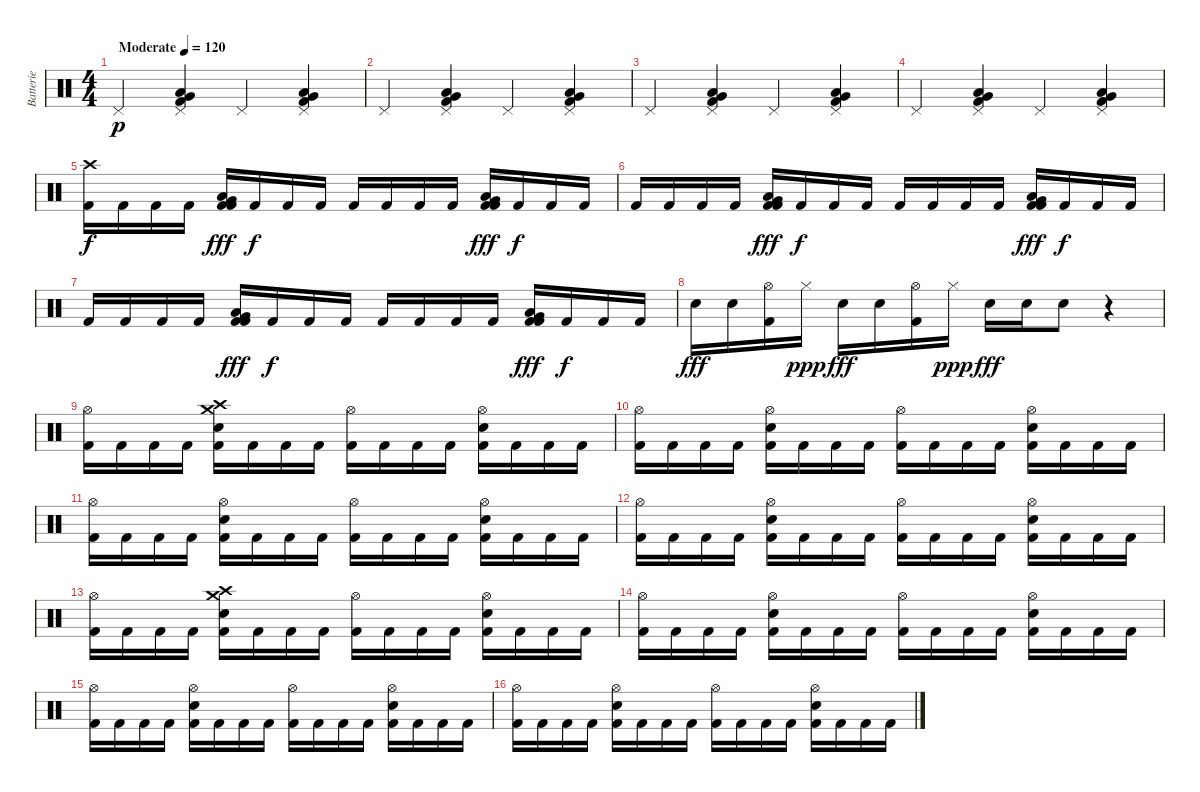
\track ("Batterie" "Batterie") {instrument percussion}
\staff {score}
\articulation defaults
\ts (4 4)
\tempo (120 "Moderate")
\clef neutral
\ks c "Pedal Hi-Hat (hit)".4{dy p}
("Very Low Tom (hit)" "Low Floor Tom (hit)" "Kick (hit) 2" "Pedal Hi-Hat (hit)").4 "Pedal Hi-Hat (hit)".4 ("Very Low Tom (hit)" "Low Floor Tom (hit)" "Kick (hit) 2" "Pedal Hi-Hat (hit)").4 |
"Pedal Hi-Hat (hit)".4 ("Very Low Tom (hit)" "Low Floor Tom (hit)" "Kick (hit) 2" "Pedal Hi-Hat (hit)").4 "Pedal Hi-Hat (hit)".4 ("Very Low Tom (hit)" "Low Floor Tom (hit)" "Kick (hit) 2" "Pedal Hi-Hat (hit)").4 |
"Pedal Hi-Hat (hit)".4 ("Very Low Tom (hit)" "Low Floor Tom (hit)" "Kick (hit) 2" "Pedal Hi-Hat (hit)").4 "Pedal Hi-Hat (hit)".4 ("Very Low Tom (hit)" "Low Floor Tom (hit)" "Kick (hit) 2" "Pedal Hi-Hat (hit)").4 |
"Pedal Hi-Hat (hit)".4 ("Very Low Tom (hit)" "Low Floor Tom (hit)" "Kick (hit) 2" "Pedal Hi-Hat (hit)").4 "Pedal Hi-Hat (hit)".4 ("Very Low Tom (hit)" "Low Floor Tom (hit)" "Kick (hit) 2" "Pedal Hi-Hat (hit)").4 |
("Crash high (hit)" "Kick (hit) 2").16{dy f} "Kick (hit) 2".16 "Kick (hit) 2".16 "Kick (hit) 2".16 ("Very Low Tom (hit)" "Low Floor Tom (hit)" "Kick (hit) 2" "Kick (hit) 2").16{dy fff} "Kick (hit) 2".16{dy f} "Kick (hit) 2".16 "Kick (hit) 2".16 "Kick (hit) 2".16 "Kick (hit) 2".16 "Kick (hit) 2".16 "Kick (hit) 2".16 ("Very Low Tom (hit)" "Low Floor Tom (hit)" "Kick (hit) 2" "Kick (hit) 2").16{dy fff} "Kick (hit) 2".16{dy f} "Kick (hit) 2".16 "Kick (hit) 2".16 |
"Kick (hit) 2".16 "Kick (hit) 2".16 "Kick (hit) 2".16 "Kick (hit) 2".16 ("Very Low Tom (hit)" "Low Floor Tom (hit)" "Kick (hit) 2" "Kick (hit) 2").16{dy fff} "Kick (hit) 2".16{dy f} "Kick (hit) 2".16 "Kick (hit) 2".16 "Kick (hit) 2".16 "Kick (hit) 2".16 "Kick (hit) 2".16 "Kick (hit) 2".16 ("Very Low Tom (hit)" "Low Floor Tom (hit)" "Kick (hit) 2" "Kick (hit) 2").16{dy fff} "Kick (hit) 2".16{dy f} "Kick (hit) 2".16 "Kick (hit) 2".16 |
"Kick (hit) 2".16 "Kick (hit) 2".16 "Kick (hit) 2".16 "Kick (hit) 2".16 ("Very Low Tom (hit)" "Low Floor Tom (hit)" "Kick (hit) 2" "Kick (hit) 2").16{dy fff} "Kick (hit) 2".16{dy f} "Kick (hit) 2".16 "Kick (hit) 2".16 "Kick (hit) 2".16 "Kick (hit) 2".16 "Kick (hit) 2".16 "Kick (hit) 2".16 ("Very Low Tom (hit)" "Low Floor Tom (hit)" "Kick (hit) 2" "Kick (hit) 2").16{dy fff} "Kick (hit) 2".16{dy f} "Kick (hit) 2".16 "Kick (hit) 2".16 |
"Electric Snare (hit)".16{dy fff} "Electric Snare (hit)".16 ("Hi-Hat (open)" "Kick (hit) 2").16 "Hi-Hat (closed)".16{dy ppp} "Electric Snare (hit)".16{dy fff} "Electric Snare (hit)".16 ("Hi-Hat (open)" "Kick (hit) 2").16 "Hi-Hat (closed)".16{dy ppp} "Electric Snare (hit)".16{dy fff} "Electric Snare (hit)".16 "Electric Snare (hit)".8 r.4 |
("Hi-Hat (open)" "Kick (hit) 2").16 "Kick (hit) 2".16 "Kick (hit) 2".16 "Kick (hit) 2".16 ("Crash medium (hit)" "Crash high (hit)" "Electric Snare (hit)" "Kick (hit) 2").16 "Kick (hit) 2".16 "Kick (hit) 2".16 "Kick (hit) 2".16 ("Hi-Hat (open)" "Kick (hit) 2").16 "Kick (hit) 2".16 "Kick (hit) 2".16 "Kick (hit) 2".16 ("Hi-Hat (open)" "Electric Snare (hit)" "Kick (hit) 2").16 "Kick (hit) 2".16 "Kick (hit) 2".16 "Kick (hit) 2".16 |
("Hi-Hat (open)" "Kick (hit) 2").16 "Kick (hit) 2".16 "Kick (hit) 2".16 "Kick (hit) 2".16 ("Hi-Hat (open)" "Electric Snare (hit)" "Kick (hit) 2").16 "Kick (hit) 2".16 "Kick (hit) 2".16 "Kick (hit) 2".16 ("Hi-Hat (open)" "Kick (hit) 2").16 "Kick (hit) 2".16 "Kick (hit) 2".16 "Kick (hit) 2".16 ("Hi-Hat (open)" "Electric Snare (hit)" "Kick (hit) 2").16 "Kick (hit) 2".16 "Kick (hit) 2".16 "Kick (hit) 2".16 |
("Hi-Hat (open)" "Kick (hit) 2").16 "Kick (hit) 2".16 "Kick (hit) 2".16 "Kick (hit) 2".16 ("Hi-Hat (open)" "Electric Snare (hit)" "Kick (hit) 2").16 "Kick (hit) 2".16 "Kick (hit) 2".16 "Kick (hit) 2".16 ("Hi-Hat (open)" "Kick (hit) 2").16 "Kick (hit) 2".16 "Kick (hit) 2".16 "Kick (hit) 2".16 ("Hi-Hat (open)" "Electric Snare (hit)" "Kick (hit) 2").16 "Kick (hit) 2".16 "Kick (hit) 2".16 "Kick (hit) 2".16 |
("Hi-Hat (open)" "Kick (hit) 2").16 "Kick (hit) 2".16 "Kick (hit) 2".16 "Kick (hit) 2".16 ("Hi-Hat (open)" "Electric Snare (hit)" "Kick (hit) 2").16 "Kick (hit) 2".16 "Kick (hit) 2".16 "Kick (hit) 2".16 ("Hi-Hat (open)" "Kick (hit) 2").16 "Kick (hit) 2".16 "Kick (hit) 2".16 "Kick (hit) 2".16 ("Hi-Hat (open)" "Electric Snare (hit)" "Kick (hit) 2").16 "Kick (hit) 2".16 "Kick (hit) 2".16 "Kick (hit) 2".16 |
("Hi-Hat (open)" "Kick (hit) 2").16 "Kick (hit) 2".16 "Kick (hit) 2".16 "Kick (hit) 2".16 ("Crash medium (hit)" "Crash high (hit)" "Electric Snare (hit)" "Kick (hit) 2").16 "Kick (hit) 2".16 "Kick (hit) 2".16 "Kick (hit) 2".16 ("Hi-Hat (open)" "Kick (hit) 2").16 "Kick (hit) 2".16 "Kick (hit) 2".16 "Kick (hit) 2".16 ("Hi-Hat (open)" "Electric Snare (hit)" "Kick (hit) 2").16 "Kick (hit) 2".16 "Kick (hit) 2".16 "Kick (hit) 2".16 |
("Hi-Hat (open)" "Kick (hit) 2").16 "Kick (hit) 2".16 "Kick (hit) 2".16 "Kick (hit) 2".16 ("Hi-Hat (open)" "Electric Snare (hit)" "Kick (hit) 2").16 "Kick (hit) 2".16 "Kick (hit) 2".16 "Kick (hit) 2".16 ("Hi-Hat (open)" "Kick (hit) 2").16 "Kick (hit) 2".16 "Kick (hit) 2".16 "Kick (hit) 2".16 ("Hi-Hat (open)" "Electric Snare (hit)" "Kick (hit) 2").16 "Kick (hit) 2".16 "Kick (hit) 2".16 "Kick (hit) 2".16 |
("Hi-Hat (open)" "Kick (hit) 2").16 "Kick (hit) 2".16 "Kick (hit) 2".16 "Kick (hit) 2".16 ("Hi-Hat (open)" "Electric Snare (hit)" "Kick (hit) 2").16 "Kick (hit) 2".16 "Kick (hit) 2".16 "Kick (hit) 2".16 ("Hi-Hat (open)" "Kick (hit) 2").16 "Kick (hit) 2".16 "Kick (hit) 2".16 "Kick (hit) 2".16 ("Hi-Hat (open)" "Electric Snare (hit)" "Kick (hit) 2").16 "Kick (hit) 2".16 "Kick (hit) 2".16 "Kick (hit) 2".16 |
("Hi-Hat (open)" "Kick (hit) 2").16 "Kick (hit) 2".16 "Kick (hit) 2".16 "Kick (hit) 2".16 ("Hi-Hat (open)" "Electric Snare (hit)" "Kick (hit) 2").16 "Kick (hit) 2".16 "Kick (hit) 2".16 "Kick (hit) 2".16 ("Hi-Hat (open)" "Kick (hit) 2").16 "Kick (hit) 2".16 "Kick (hit) 2".16 "Kick (hit) 2".16 ("Hi-Hat (open)" "Electric Snare (hit)" "Kick (hit) 2").16 "Kick (hit) 2".16 "Kick (hit) 2".16 "Kick (hit) 2".16
